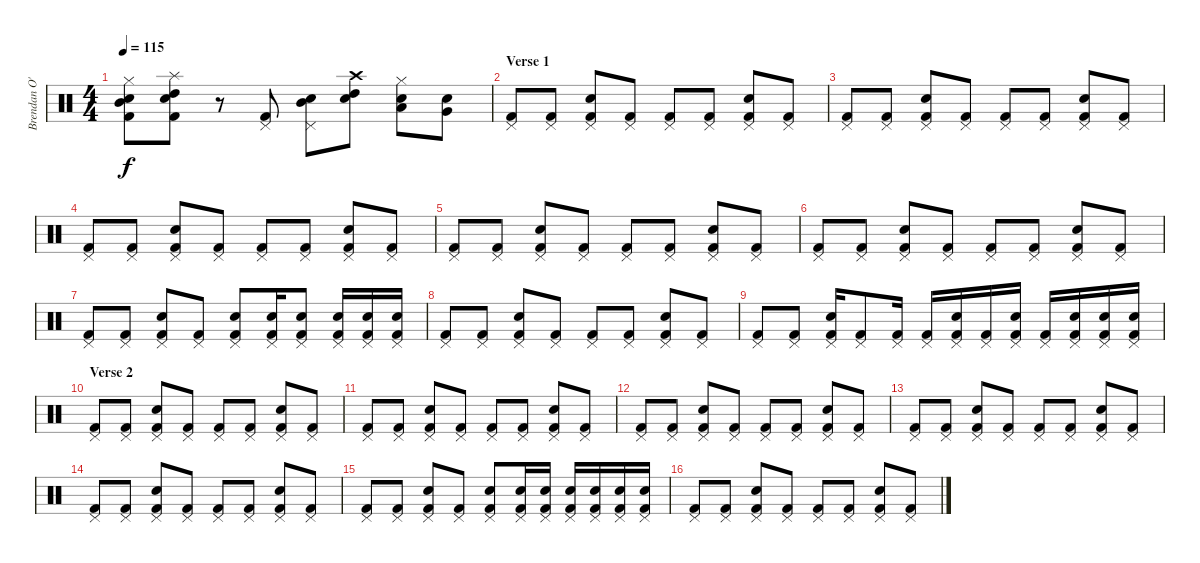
\track ("Brendan O'Neill" "Brendan O'") {instrument percussion}
\staff {score}
\articulation defaults
\ts (4 4)
\tempo 115
\clef neutral
\ks c
("Hi-Hat (closed)" "Mid Tom (hit)" "Snare (hit) 2" "Kick (hit) 2").8{dy f} ("Splash (hit)" "High Tom (hit)" "Electric Snare (hit)" "Kick (hit) 2").8 r.8 ("Pedal Hi-Hat (hit)" "Kick (hit) 2").8 ("Pedal Hi-Hat (hit)" "Mid Tom (hit)" "Electric Snare (hit)").8 ("Crash high (hit)" "High Tom (hit)" "Electric Snare (hit)").8 ("Hi-Hat (closed)" "Low Tom (hit)" "Snare (hit) 2").8 ("Very Low Tom (hit)" "Snare (hit) 2").8 |
\section ("" "Verse 1")
("Pedal Hi-Hat (hit)" "Kick (hit) 2").8 ("Pedal Hi-Hat (hit)" "Kick (hit) 2").8 ("Pedal Hi-Hat (hit)" "Snare (hit) 2" "Kick (hit) 2").8 ("Pedal Hi-Hat (hit)" "Kick (hit) 2").8 ("Pedal Hi-Hat (hit)" "Kick (hit) 2").8 ("Pedal Hi-Hat (hit)" "Kick (hit) 2").8 ("Pedal Hi-Hat (hit)" "Snare (hit) 2" "Kick (hit) 2").8 ("Pedal Hi-Hat (hit)" "Kick (hit) 2").8 |
("Pedal Hi-Hat (hit)" "Kick (hit) 2").8 ("Pedal Hi-Hat (hit)" "Kick (hit) 2").8 ("Pedal Hi-Hat (hit)" "Snare (hit) 2" "Kick (hit) 2").8 ("Pedal Hi-Hat (hit)" "Kick (hit) 2").8 ("Pedal Hi-Hat (hit)" "Kick (hit) 2").8 ("Pedal Hi-Hat (hit)" "Kick (hit) 2").8 ("Pedal Hi-Hat (hit)" "Snare (hit) 2" "Kick (hit) 2").8 ("Pedal Hi-Hat (hit)" "Kick (hit) 2").8 |
("Pedal Hi-Hat (hit)" "Kick (hit) 2").8 ("Pedal Hi-Hat (hit)" "Kick (hit) 2").8 ("Pedal Hi-Hat (hit)" "Snare (hit) 2" "Kick (hit) 2").8 ("Pedal Hi-Hat (hit)" "Kick (hit) 2").8 ("Pedal Hi-Hat (hit)" "Kick (hit) 2").8 ("Pedal Hi-Hat (hit)" "Kick (hit) 2").8 ("Pedal Hi-Hat (hit)" "Snare (hit) 2" "Kick (hit) 2").8 ("Pedal Hi-Hat (hit)" "Kick (hit) 2").8 |
("Pedal Hi-Hat (hit)" "Kick (hit) 2").8 ("Pedal Hi-Hat (hit)" "Kick (hit) 2").8 ("Pedal Hi-Hat (hit)" "Snare (hit) 2" "Kick (hit) 2").8 ("Pedal Hi-Hat (hit)" "Kick (hit) 2").8 ("Pedal Hi-Hat (hit)" "Kick (hit) 2").8 ("Pedal Hi-Hat (hit)" "Kick (hit) 2").8 ("Pedal Hi-Hat (hit)" "Snare (hit) 2" "Kick (hit) 2").8 ("Pedal Hi-Hat (hit)" "Kick (hit) 2").8 |
("Pedal Hi-Hat (hit)" "Kick (hit) 2").8 ("Pedal Hi-Hat (hit)" "Kick (hit) 2").8 ("Pedal Hi-Hat (hit)" "Snare (hit) 2" "Kick (hit) 2").8 ("Pedal Hi-Hat (hit)" "Kick (hit) 2").8 ("Pedal Hi-Hat (hit)" "Kick (hit) 2").8 ("Pedal Hi-Hat (hit)" "Kick (hit) 2").8 ("Pedal Hi-Hat (hit)" "Snare (hit) 2" "Kick (hit) 2").8 ("Pedal Hi-Hat (hit)" "Kick (hit) 2").8 |
("Pedal Hi-Hat (hit)" "Kick (hit) 2").8 ("Pedal Hi-Hat (hit)" "Kick (hit) 2").8 ("Pedal Hi-Hat (hit)" "Snare (hit) 2" "Kick (hit) 2").8 ("Pedal Hi-Hat (hit)" "Kick (hit) 2").8 ("Pedal Hi-Hat (hit)" "Snare (hit) 2" "Kick (hit) 2").8 ("Pedal Hi-Hat (hit)" "Snare (hit) 2" "Kick (hit) 2").16 ("Pedal Hi-Hat (hit)" "Electric Snare (hit)" "Kick (hit) 2").8 ("Pedal Hi-Hat (hit)" "Electric Snare (hit)" "Kick (hit) 2").16 ("Pedal Hi-Hat (hit)" "Electric Snare (hit)" "Kick (hit) 2").16 ("Pedal Hi-Hat (hit)" "Snare (hit) 2" "Kick (hit) 2").16 |
("Pedal Hi-Hat (hit)" "Kick (hit) 2").8 ("Pedal Hi-Hat (hit)" "Kick (hit) 2").8 ("Pedal Hi-Hat (hit)" "Snare (hit) 2" "Kick (hit) 2").8 ("Pedal Hi-Hat (hit)" "Kick (hit) 2").8 ("Pedal Hi-Hat (hit)" "Kick (hit) 2").8 ("Pedal Hi-Hat (hit)" "Kick (hit) 2").8 ("Pedal Hi-Hat (hit)" "Snare (hit) 2" "Kick (hit) 2").8 ("Pedal Hi-Hat (hit)" "Kick (hit) 2").8 |
("Pedal Hi-Hat (hit)" "Kick (hit) 2").8 ("Pedal Hi-Hat (hit)" "Kick (hit) 2").8 ("Pedal Hi-Hat (hit)" "Snare (hit) 2" "Kick (hit) 2").16 ("Pedal Hi-Hat (hit)" "Kick (hit) 2").8 ("Pedal Hi-Hat (hit)" "Kick (hit) 2").16 ("Pedal Hi-Hat (hit)" "Kick (hit) 2").16 ("Pedal Hi-Hat (hit)" "Snare (hit) 2" "Kick (hit) 2").16 ("Pedal Hi-Hat (hit)" "Kick (hit) 2").16 ("Pedal Hi-Hat (hit)" "Snare (hit) 2" "Kick (hit) 2").16 ("Pedal Hi-Hat (hit)" "Kick (hit) 2").16 ("Pedal Hi-Hat (hit)" "Snare (hit) 2" "Kick (hit) 2").16 ("Pedal Hi-Hat (hit)" "Snare (hit) 2" "Kick (hit) 2").16 ("Pedal Hi-Hat (hit)" "Snare (hit) 2" "Kick (hit) 2").16 |
\section ("" "Verse 2 ")
("Pedal Hi-Hat (hit)" "Kick (hit) 2").8 ("Pedal Hi-Hat (hit)" "Kick (hit) 2").8 ("Pedal Hi-Hat (hit)" "Snare (hit) 2" "Kick (hit) 2").8 ("Pedal Hi-Hat (hit)" "Kick (hit) 2").8 ("Pedal Hi-Hat (hit)" "Kick (hit) 2").8 ("Pedal Hi-Hat (hit)" "Kick (hit) 2").8 ("Pedal Hi-Hat (hit)" "Snare (hit) 2" "Kick (hit) 2").8 ("Pedal Hi-Hat (hit)" "Kick (hit) 2").8 |
("Pedal Hi-Hat (hit)" "Kick (hit) 2").8 ("Pedal Hi-Hat (hit)" "Kick (hit) 2").8 ("Pedal Hi-Hat (hit)" "Snare (hit) 2" "Kick (hit) 2").8 ("Pedal Hi-Hat (hit)" "Kick (hit) 2").8 ("Pedal Hi-Hat (hit)" "Kick (hit) 2").8 ("Pedal Hi-Hat (hit)" "Kick (hit) 2").8 ("Pedal Hi-Hat (hit)" "Snare (hit) 2" "Kick (hit) 2").8 ("Pedal Hi-Hat (hit)" "Kick (hit) 2").8 |
("Pedal Hi-Hat (hit)" "Kick (hit) 2").8 ("Pedal Hi-Hat (hit)" "Kick (hit) 2").8 ("Pedal Hi-Hat (hit)" "Snare (hit) 2" "Kick (hit) 2").8 ("Pedal Hi-Hat (hit)" "Kick (hit) 2").8 ("Pedal Hi-Hat (hit)" "Kick (hit) 2").8 ("Pedal Hi-Hat (hit)" "Kick (hit) 2").8 ("Pedal Hi-Hat (hit)" "Snare (hit) 2" "Kick (hit) 2").8 ("Pedal Hi-Hat (hit)" "Kick (hit) 2").8 |
("Pedal Hi-Hat (hit)" "Kick (hit) 2").8 ("Pedal Hi-Hat (hit)" "Kick (hit) 2").8 ("Pedal Hi-Hat (hit)" "Snare (hit) 2" "Kick (hit) 2").8 ("Pedal Hi-Hat (hit)" "Kick (hit) 2").8 ("Pedal Hi-Hat (hit)" "Kick (hit) 2").8 ("Pedal Hi-Hat (hit)" "Kick (hit) 2").8 ("Pedal Hi-Hat (hit)" "Snare (hit) 2" "Kick (hit) 2").8 ("Pedal Hi-Hat (hit)" "Kick (hit) 2").8 |
("Pedal Hi-Hat (hit)" "Kick (hit) 2").8 ("Pedal Hi-Hat (hit)" "Kick (hit) 2").8 ("Pedal Hi-Hat (hit)" "Snare (hit) 2" "Kick (hit) 2").8 ("Pedal Hi-Hat (hit)" "Kick (hit) 2").8 ("Pedal Hi-Hat (hit)" "Kick (hit) 2").8 ("Pedal Hi-Hat (hit)" "Kick (hit) 2").8 ("Pedal Hi-Hat (hit)" "Snare (hit) 2" "Kick (hit) 2").8 ("Pedal Hi-Hat (hit)" "Kick (hit) 2").8 |
("Pedal Hi-Hat (hit)" "Kick (hit) 2").8 ("Pedal Hi-Hat (hit)" "Kick (hit) 2").8 ("Pedal Hi-Hat (hit)" "Snare (hit) 2" "Kick (hit) 2").8 ("Pedal Hi-Hat (hit)" "Kick (hit) 2").8 ("Pedal Hi-Hat (hit)" "Snare (hit) 2" "Kick (hit) 2").8 ("Pedal Hi-Hat (hit)" "Electric Snare (hit)" "Kick (hit) 2").16 ("Pedal Hi-Hat (hit)" "Electric Snare (hit)" "Kick (hit) 2").16 ("Pedal Hi-Hat (hit)" "Snare (hit) 2" "Kick (hit) 2").16 ("Pedal Hi-Hat (hit)" "Snare (hit) 2" "Kick (hit) 2").16 ("Pedal Hi-Hat (hit)" "Snare (hit) 2" "Kick (hit) 2").16 ("Pedal Hi-Hat (hit)" "Snare (hit) 2" "Kick (hit) 2").16 |
("Pedal Hi-Hat (hit)" "Kick (hit) 2").8 ("Pedal Hi-Hat (hit)" "Kick (hit) 2").8 ("Pedal Hi-Hat (hit)" "Snare (hit) 2" "Kick (hit) 2").8 ("Pedal Hi-Hat (hit)" "Kick (hit) 2").8 ("Pedal Hi-Hat (hit)" "Kick (hit) 2").8 ("Pedal Hi-Hat (hit)" "Kick (hit) 2").8 ("Pedal Hi-Hat (hit)" "Snare (hit) 2" "Kick (hit) 2").8 ("Pedal Hi-Hat (hit)" "Kick (hit) 2").8
